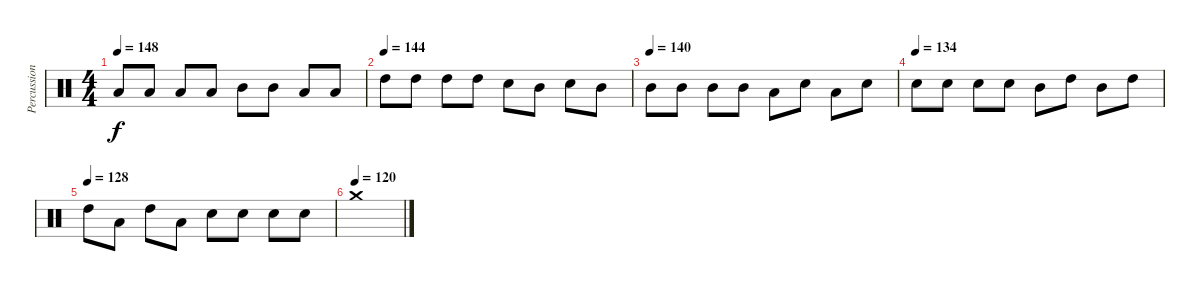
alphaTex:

\track ("Percussion" "Percussion") {instrument percussion}
\staff {score}
\articulation defaults
\ts (4 4)
\tempo 148
\clef neutral
\ks c "Low Floor Tom (hit)".8{dy f} "Low Floor Tom (hit)".8 "Low Floor Tom (hit)".8 "Low Floor Tom (hit)".8 "Mid Tom (hit)".8 "Mid Tom (hit)".8 "Low Floor Tom (hit)".8 "Low Floor Tom (hit)".8
|
\tempo (144)
"High Tom (hit)".8 "High Tom (hit)".8 "High Tom (hit)".8 "High Tom (hit)".8 "Snare (hit) 2".8 "Mid Tom (hit)".8 "Snare (hit) 2".8 "Mid Tom (hit)".8 |
\tempo (140)
"Mid Tom (hit)".8 "Mid Tom (hit)".8 "Mid Tom (hit)".8 "Mid Tom (hit)".8 "Low Floor Tom (hit)".8 "Snare (hit) 2".8 "Low Floor Tom (hit)".8 "Snare (hit) 2".8 |
\tempo (134)
"Snare (hit) 2".8 "Snare (hit) 2".8 "Snare (hit) 2".8 "Snare (hit) 2".8 "Mid Tom (hit)".8 "High Tom (hit)".8 "Mid Tom (hit)".8 "High Tom (hit)".8 |
\tempo (128)
"High Tom (hit)".8 "Low Floor Tom (hit)".8 "High Tom (hit)".8 "Low Floor Tom (hit)".8 "Snare (hit) 2".8 "Snare (hit) 2".8 "Snare (hit) 2".8 "Snare (hit) 2".8 |
\tempo (120)
"Crash medium (hit)".1
